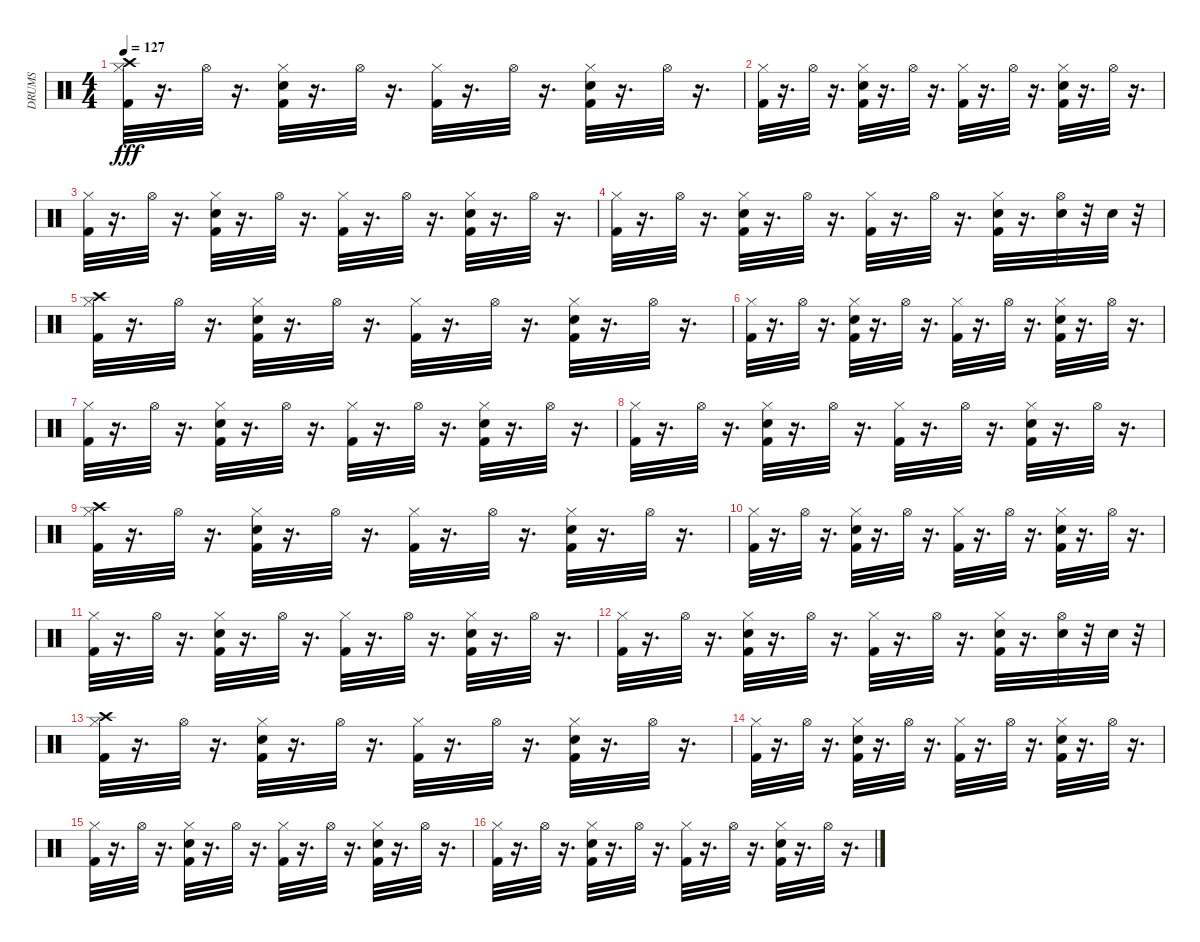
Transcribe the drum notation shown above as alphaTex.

\track ("DRUMS" "DRUMS") {instrument percussion}
\staff {score}
\articulation defaults
\ts (4 4)
\tempo 127
\clef neutral
\ks c
("Crash high (hit)" "Hi-Hat (closed)" "Kick (hit) 2").32{dy fff} r.16{d} "Hi-Hat (open)".32 r.16{d} ("Kick (hit) 2" "Hi-Hat (closed)" "Snare (hit) 2").32 r.16{d} "Hi-Hat (open)".32 r.16{d} ("Hi-Hat (closed)" "Kick (hit) 2").32 r.16{d} "Hi-Hat (open)".32 r.16{d} ("Hi-Hat (closed)" "Snare (hit) 2" "Kick (hit) 2").32 r.16{d} "Hi-Hat (open)".32 r.16{d} |
("Hi-Hat (closed)" "Kick (hit) 2").32 r.16{d} "Hi-Hat (open)".32 r.16{d} ("Hi-Hat (closed)" "Snare (hit) 2" "Kick (hit) 2").32 r.16{d} "Hi-Hat (open)".32 r.16{d} ("Hi-Hat (closed)" "Kick (hit) 2").32 r.16{d} "Hi-Hat (open)".32 r.16{d} ("Hi-Hat (closed)" "Snare (hit) 2" "Kick (hit) 2").32 r.16{d} "Hi-Hat (open)".32 r.16{d} |
("Hi-Hat (closed)" "Kick (hit) 2").32 r.16{d} "Hi-Hat (open)".32 r.16{d} ("Kick (hit) 2" "Hi-Hat (closed)" "Snare (hit) 2").32 r.16{d} "Hi-Hat (open)".32 r.16{d} ("Hi-Hat (closed)" "Kick (hit) 2").32 r.16{d} "Hi-Hat (open)".32 r.16{d} ("Kick (hit) 2" "Hi-Hat (closed)" "Snare (hit) 2").32 r.16{d} "Hi-Hat (open)".32 r.16{d} |
("Hi-Hat (closed)" "Kick (hit) 2").32 r.16{d} "Hi-Hat (open)".32 r.16{d} ("Kick (hit) 2" "Hi-Hat (closed)" "Snare (hit) 2").32 r.16{d} "Hi-Hat (open)".32 r.16{d} ("Hi-Hat (closed)" "Kick (hit) 2").32 r.16{d} "Hi-Hat (open)".32 r.16{d} ("Hi-Hat (closed)" "Snare (hit) 2" "Kick (hit) 2").32 r.16{d} ("Snare (hit) 2" "Hi-Hat (open)").32 r.32 "Snare (hit) 2".32 r.32 |
("Crash high (hit)" "Hi-Hat (closed)" "Kick (hit) 2").32 r.16{d} "Hi-Hat (open)".32 r.16{d} ("Hi-Hat (closed)" "Snare (hit) 2" "Kick (hit) 2").32 r.16{d} "Hi-Hat (open)".32 r.16{d} ("Kick (hit) 2" "Hi-Hat (closed)").32 r.16{d} "Hi-Hat (open)".32 r.16{d} ("Kick (hit) 2" "Hi-Hat (closed)" "Snare (hit) 2").32 r.16{d} "Hi-Hat (open)".32 r.16{d} |
("Hi-Hat (closed)" "Kick (hit) 2").32 r.16{d} "Hi-Hat (open)".32 r.16{d} ("Hi-Hat (closed)" "Snare (hit) 2" "Kick (hit) 2").32 r.16{d} "Hi-Hat (open)".32 r.16{d} ("Hi-Hat (closed)" "Kick (hit) 2").32 r.16{d} "Hi-Hat (open)".32 r.16{d} ("Hi-Hat (closed)" "Snare (hit) 2" "Kick (hit) 2").32 r.16{d} "Hi-Hat (open)".32 r.16{d} |
("Hi-Hat (closed)" "Kick (hit) 2").32 r.16{d} "Hi-Hat (open)".32 r.16{d} ("Kick (hit) 2" "Hi-Hat (closed)" "Snare (hit) 2").32 r.16{d} "Hi-Hat (open)".32 r.16{d} ("Kick (hit) 2" "Hi-Hat (closed)").32 r.16{d} "Hi-Hat (open)".32 r.16{d} ("Kick (hit) 2" "Hi-Hat (closed)" "Snare (hit) 2").32 r.16{d} "Hi-Hat (open)".32 r.16{d} |
("Hi-Hat (closed)" "Kick (hit) 2").32 r.16{d} "Hi-Hat (open)".32 r.16{d} ("Hi-Hat (closed)" "Snare (hit) 2" "Kick (hit) 2").32 r.16{d} "Hi-Hat (open)".32 r.16{d} ("Hi-Hat (closed)" "Kick (hit) 2").32 r.16{d} "Hi-Hat (open)".32 r.16{d} ("Hi-Hat (closed)" "Snare (hit) 2" "Kick (hit) 2").32 r.16{d} "Hi-Hat (open)".32 r.16{d} |
("Crash high (hit)" "Hi-Hat (closed)" "Kick (hit) 2").32 r.16{d} "Hi-Hat (open)".32 r.16{d} ("Kick (hit) 2" "Hi-Hat (closed)" "Snare (hit) 2").32 r.16{d} "Hi-Hat (open)".32 r.16{d} ("Hi-Hat (closed)" "Kick (hit) 2").32 r.16{d} "Hi-Hat (open)".32 r.16{d} ("Hi-Hat (closed)" "Snare (hit) 2" "Kick (hit) 2").32 r.16{d} "Hi-Hat (open)".32 r.16{d} |
("Hi-Hat (closed)" "Kick (hit) 2").32 r.16{d} "Hi-Hat (open)".32 r.16{d} ("Hi-Hat (closed)" "Snare (hit) 2" "Kick (hit) 2").32 r.16{d} "Hi-Hat (open)".32 r.16{d} ("Hi-Hat (closed)" "Kick (hit) 2").32 r.16{d} "Hi-Hat (open)".32 r.16{d} ("Hi-Hat (closed)" "Snare (hit) 2" "Kick (hit) 2").32 r.16{d} "Hi-Hat (open)".32 r.16{d} |
("Hi-Hat (closed)" "Kick (hit) 2").32 r.16{d} "Hi-Hat (open)".32 r.16{d} ("Kick (hit) 2" "Hi-Hat (closed)" "Snare (hit) 2").32 r.16{d} "Hi-Hat (open)".32 r.16{d} ("Hi-Hat (closed)" "Kick (hit) 2").32 r.16{d} "Hi-Hat (open)".32 r.16{d} ("Hi-Hat (closed)" "Snare (hit) 2" "Kick (hit) 2").32 r.16{d} "Hi-Hat (open)".32 r.16{d} |
("Hi-Hat (closed)" "Kick (hit) 2").32 r.16{d} "Hi-Hat (open)".32 r.16{d} ("Hi-Hat (closed)" "Snare (hit) 2" "Kick (hit) 2").32 r.16{d} "Hi-Hat (open)".32 r.16{d} ("Hi-Hat (closed)" "Kick (hit) 2").32 r.16{d} "Hi-Hat (open)".32 r.16{d} ("Hi-Hat (closed)" "Snare (hit) 2" "Kick (hit) 2").32 r.16{d} ("Hi-Hat (open)" "Snare (hit) 2").32 r.32 "Snare (hit) 2".32 r.32 |
("Crash high (hit)" "Hi-Hat (closed)" "Kick (hit) 2").32 r.16{d} "Hi-Hat (open)".32 r.16{d} ("Kick (hit) 2" "Hi-Hat (closed)" "Snare (hit) 2").32 r.16{d} "Hi-Hat (open)".32 r.16{d} ("Hi-Hat (closed)" "Kick (hit) 2").32 r.16{d} "Hi-Hat (open)".32 r.16{d} ("Kick (hit) 2" "Hi-Hat (closed)" "Snare (hit) 2").32 r.16{d} "Hi-Hat (open)".32 r.16{d} |
("Hi-Hat (closed)" "Kick (hit) 2").32 r.16{d} "Hi-Hat (open)".32 r.16{d} ("Hi-Hat (closed)" "Snare (hit) 2" "Kick (hit) 2").32 r.16{d} "Hi-Hat (open)".32 r.16{d} ("Hi-Hat (closed)" "Kick (hit) 2").32 r.16{d} "Hi-Hat (open)".32 r.16{d} ("Hi-Hat (closed)" "Snare (hit) 2" "Kick (hit) 2").32 r.16{d} "Hi-Hat (open)".32 r.16{d} |
("Hi-Hat (closed)" "Kick (hit) 2").32 r.16{d} "Hi-Hat (open)".32 r.16{d} ("Kick (hit) 2" "Hi-Hat (closed)" "Snare (hit) 2").32 r.16{d} "Hi-Hat (open)".32 r.16{d} ("Hi-Hat (closed)" "Kick (hit) 2").32 r.16{d} "Hi-Hat (open)".32 r.16{d} ("Kick (hit) 2" "Hi-Hat (closed)" "Snare (hit) 2").32 r.16{d} "Hi-Hat (open)".32 r.16{d} |
("Hi-Hat (closed)" "Kick (hit) 2").32 r.16{d} "Hi-Hat (open)".32 r.16{d} ("Hi-Hat (closed)" "Snare (hit) 2" "Kick (hit) 2").32 r.16{d} "Hi-Hat (open)".32 r.16{d} ("Hi-Hat (closed)" "Kick (hit) 2").32 r.16{d} "Hi-Hat (open)".32 r.16{d} ("Hi-Hat (closed)" "Snare (hit) 2" "Kick (hit) 2").32 r.16{d} "Hi-Hat (open)".32 r.16{d}
